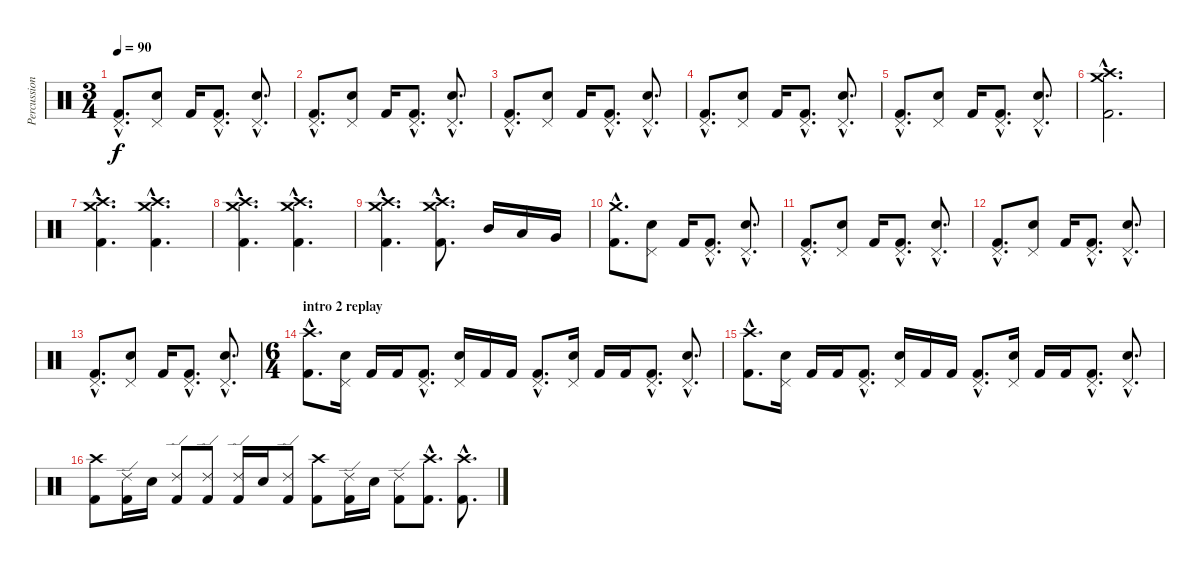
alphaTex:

\track ("Percussion" "Percussion") {instrument percussion}
\staff {score}
\articulation defaults
\ts (3 4)
\tempo 90
\clef neutral
\ks c
("Kick (hit) 2"{hac} "Pedal Hi-Hat (hit)"{hac}).8{d dy f} ("Electric Snare (hit)" "Pedal Hi-Hat (hit)").8 "Kick (hit) 2".16 ("Kick (hit) 2"{hac} "Pedal Hi-Hat (hit)"{hac}).8{d} ("Electric Snare (hit)"{hac} "Pedal Hi-Hat (hit)"{hac}).8{d} |
("Kick (hit) 2"{hac} "Pedal Hi-Hat (hit)"{hac}).8{d} ("Electric Snare (hit)" "Pedal Hi-Hat (hit)").8 "Kick (hit) 2".16 ("Kick (hit) 2"{hac} "Pedal Hi-Hat (hit)"{hac}).8{d} ("Electric Snare (hit)"{hac} "Pedal Hi-Hat (hit)"{hac}).8{d} |
("Kick (hit) 2"{hac} "Pedal Hi-Hat (hit)"{hac}).8{d} ("Electric Snare (hit)" "Pedal Hi-Hat (hit)").8 "Kick (hit) 2".16 ("Kick (hit) 2"{hac} "Pedal Hi-Hat (hit)"{hac}).8{d} ("Electric Snare (hit)"{hac} "Pedal Hi-Hat (hit)"{hac}).8{d} |
("Kick (hit) 2"{hac} "Pedal Hi-Hat (hit)"{hac}).8{d} ("Electric Snare (hit)" "Pedal Hi-Hat (hit)").8 "Kick (hit) 2".16 ("Kick (hit) 2"{hac} "Pedal Hi-Hat (hit)"{hac}).8{d} ("Electric Snare (hit)"{hac} "Pedal Hi-Hat (hit)"{hac}).8{d} |
("Kick (hit) 2"{hac} "Pedal Hi-Hat (hit)"{hac}).8{d} ("Electric Snare (hit)" "Pedal Hi-Hat (hit)").8 "Kick (hit) 2".16 ("Kick (hit) 2"{hac} "Pedal Hi-Hat (hit)"{hac}).8{d} ("Electric Snare (hit)"{hac} "Pedal Hi-Hat (hit)"{hac}).8{d} |
("Kick (hit) 2"{hac} "Crash high (hit)"{hac} "Crash medium (hit)"{hac}).2{d} |
("Kick (hit) 2"{hac} "Crash high (hit)"{hac} "Crash medium (hit)"{hac}).4{d} ("Kick (hit) 2"{hac} "Crash high (hit)"{hac} "Crash medium (hit)"{hac}).4{d} |
("Kick (hit) 2"{hac} "Crash high (hit)"{hac} "Crash medium (hit)"{hac}).4{d} ("Kick (hit) 2"{hac} "Crash high (hit)"{hac} "Crash medium (hit)"{hac}).4{d} |
("Kick (hit) 2"{hac} "Crash high (hit)"{hac} "Crash medium (hit)"{hac}).4{d} ("Kick (hit) 2"{hac} "Crash high (hit)"{hac} "Crash medium (hit)"{hac}).8{d} "Mid Tom (hit)".16 "Low Tom (hit)".16 "Very Low Tom (hit)".16 |
("Kick (hit) 2"{hac} "Crash medium (hit)"{hac}).8{d} ("Electric Snare (hit)" "Pedal Hi-Hat (hit)").8 "Kick (hit) 2".16 ("Kick (hit) 2"{hac} "Pedal Hi-Hat (hit)"{hac}).8{d} ("Electric Snare (hit)"{hac} "Pedal Hi-Hat (hit)"{hac}).8{d} |
("Kick (hit) 2"{hac} "Pedal Hi-Hat (hit)"{hac}).8{d} ("Electric Snare (hit)" "Pedal Hi-Hat (hit)").8 "Kick (hit) 2".16 ("Kick (hit) 2"{hac} "Pedal Hi-Hat (hit)"{hac}).8{d} ("Electric Snare (hit)"{hac} "Pedal Hi-Hat (hit)"{hac}).8{d} |
("Kick (hit) 2"{hac} "Pedal Hi-Hat (hit)"{hac}).8{d} ("Electric Snare (hit)" "Pedal Hi-Hat (hit)").8 "Kick (hit) 2".16 ("Kick (hit) 2"{hac} "Pedal Hi-Hat (hit)"{hac}).8{d} ("Electric Snare (hit)"{hac} "Pedal Hi-Hat (hit)"{hac}).8{d} |
("Kick (hit) 2"{hac} "Pedal Hi-Hat (hit)"{hac}).8{d} ("Electric Snare (hit)" "Pedal Hi-Hat (hit)").8 "Kick (hit) 2".16 ("Kick (hit) 2"{hac} "Pedal Hi-Hat (hit)"{hac}).8{d} ("Electric Snare (hit)"{hac} "Pedal Hi-Hat (hit)"{hac}).8{d} |
\ts (6 4)
\section ("" "intro 2 replay")
("Kick (hit) 2"{hac} "Crash high (hit)"{hac}).8{d} ("Electric Snare (hit)" "Pedal Hi-Hat (hit)").16 "Kick (hit) 2".16 "Kick (hit) 2".16 ("Kick (hit) 2"{hac} "Pedal Hi-Hat (hit)"{hac}).8{d} ("Electric Snare (hit)" "Pedal Hi-Hat (hit)").16 "Kick (hit) 2".16 "Kick (hit) 2".16 ("Kick (hit) 2"{hac} "Pedal Hi-Hat (hit)"{hac}).8{d} ("Electric Snare (hit)" "Pedal Hi-Hat (hit)").16 "Kick (hit) 2".16 "Kick (hit) 2".16 ("Kick (hit) 2"{hac} "Pedal Hi-Hat (hit)"{hac}).8{d} ("Electric Snare (hit)"{hac} "Pedal Hi-Hat (hit)"{hac}).8{d} |
("Kick (hit) 2"{hac} "Crash high (hit)"{hac}).8{d} ("Electric Snare (hit)" "Pedal Hi-Hat (hit)").16 "Kick (hit) 2".16 "Kick (hit) 2".16 ("Kick (hit) 2"{hac} "Pedal Hi-Hat (hit)"{hac}).8{d} ("Electric Snare (hit)" "Pedal Hi-Hat (hit)").16 "Kick (hit) 2".16 "Kick (hit) 2".16 ("Kick (hit) 2"{hac} "Pedal Hi-Hat (hit)"{hac}).8{d} ("Electric Snare (hit)" "Pedal Hi-Hat (hit)").16 "Kick (hit) 2".16 "Kick (hit) 2".16 ("Kick (hit) 2"{hac} "Pedal Hi-Hat (hit)"{hac}).8{d} ("Electric Snare (hit)"{hac} "Pedal Hi-Hat (hit)"{hac}).8{d} |
("Kick (hit) 2" "Crash high (hit)").8 ("Kick (hit) 2" "Ride (edge) 2").16 "Electric Snare (hit)".16 ("Kick (hit) 2" "Ride (edge) 2").8 ("Kick (hit) 2" "Ride (edge) 2").8 ("Kick (hit) 2" "Ride (edge) 2").16 "Electric Snare (hit)".16 ("Kick (hit) 2" "Ride (edge) 2").8 ("Kick (hit) 2" "Crash high (hit)").8 ("Kick (hit) 2" "Ride (edge) 2").16 "Electric Snare (hit)".16 ("Kick (hit) 2" "Ride (edge) 2").8 ("Kick (hit) 2"{hac} "Crash high (hit)"{hac}).8{d} ("Kick (hit) 2"{hac} "Crash high (hit)"{hac}).8{d}
